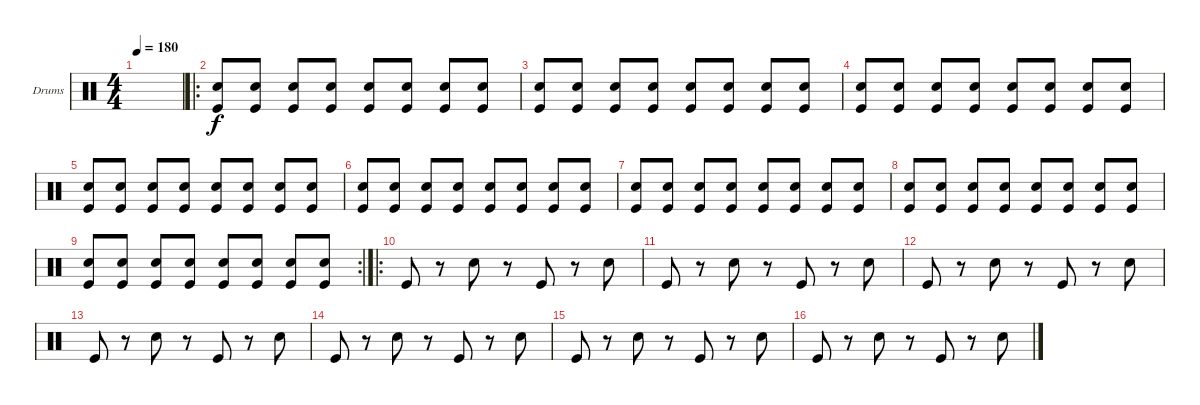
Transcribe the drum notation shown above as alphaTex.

\defaultSystemsLayout 4
\bracketExtendMode groupsimilarinstruments
\firstSystemTrackNameOrientation horizontal
\otherSystemsTrackNameOrientation horizontal
\track ("Drumkit" "Drums") {instrument percussion}
\staff {score}
\articulation defaults
\ts (4 4)
\tempo 180
\clef neutral
\scale
0.301075
\ks c
|
\ro
\scale
0.365591 ("Snare (hit) 2" "Kick (hit)").8 ("Snare (hit) 2" "Kick (hit)").8 ("Snare (hit) 2" "Kick (hit)").8 ("Snare (hit) 2" "Kick (hit)").8 ("Snare (hit) 2" "Kick (hit)").8 ("Snare (hit) 2" "Kick (hit)").8 ("Snare (hit) 2" "Kick (hit)").8 ("Snare (hit) 2" "Kick (hit)").8 |
\scale
0.333333 ("Snare (hit) 2" "Kick (hit)").8 ("Snare (hit) 2" "Kick (hit)").8 ("Snare (hit) 2" "Kick (hit)").8 ("Snare (hit) 2" "Kick (hit)").8 ("Snare (hit) 2" "Kick (hit)").8 ("Snare (hit) 2" "Kick (hit)").8 ("Snare (hit) 2" "Kick (hit)").8 ("Snare (hit) 2" "Kick (hit)").8 |
\scale
0.333333 ("Snare (hit) 2" "Kick (hit)").8 ("Snare (hit) 2" "Kick (hit)").8 ("Snare (hit) 2" "Kick (hit)").8 ("Snare (hit) 2" "Kick (hit)").8 ("Snare (hit) 2" "Kick (hit)").8 ("Snare (hit) 2" "Kick (hit)").8 ("Snare (hit) 2" "Kick (hit)").8 ("Snare (hit) 2" "Kick (hit)").8 |
\scale
0.333333 ("Snare (hit) 2" "Kick (hit)").8 ("Snare (hit) 2" "Kick (hit)").8 ("Snare (hit) 2" "Kick (hit)").8 ("Snare (hit) 2" "Kick (hit)").8 ("Snare (hit) 2" "Kick (hit)").8 ("Snare (hit) 2" "Kick (hit)").8 ("Snare (hit) 2" "Kick (hit)").8 ("Snare (hit) 2" "Kick (hit)").8 |
\scale
0.333333 ("Snare (hit) 2" "Kick (hit)").8 ("Snare (hit) 2" "Kick (hit)").8 ("Snare (hit) 2" "Kick (hit)").8 ("Snare (hit) 2" "Kick (hit)").8 ("Snare (hit) 2" "Kick (hit)").8 ("Snare (hit) 2" "Kick (hit)").8 ("Snare (hit) 2" "Kick (hit)").8 ("Snare (hit) 2" "Kick (hit)").8 |
\scale
0.333333 ("Snare (hit) 2" "Kick (hit)").8 ("Snare (hit) 2" "Kick (hit)").8 ("Snare (hit) 2" "Kick (hit)").8 ("Snare (hit) 2" "Kick (hit)").8 ("Snare (hit) 2" "Kick (hit)").8 ("Snare (hit) 2" "Kick (hit)").8 ("Snare (hit) 2" "Kick (hit)").8 ("Snare (hit) 2" "Kick (hit)").8 |
\scale
0.333333 ("Snare (hit) 2" "Kick (hit)").8 ("Snare (hit) 2" "Kick (hit)").8 ("Snare (hit) 2" "Kick (hit)").8 ("Snare (hit) 2" "Kick (hit)").8 ("Snare (hit) 2" "Kick (hit)").8 ("Snare (hit) 2" "Kick (hit)").8 ("Snare (hit) 2" "Kick (hit)").8 ("Snare (hit) 2" "Kick (hit)").8 |
\rc 2
\scale
0.333333 ("Snare (hit) 2" "Kick (hit)").8 ("Snare (hit) 2" "Kick (hit)").8 ("Snare (hit) 2" "Kick (hit)").8 ("Snare (hit) 2" "Kick (hit)").8 ("Snare (hit) 2" "Kick (hit)").8 ("Snare (hit) 2" "Kick (hit)").8 ("Snare (hit) 2" "Kick (hit)").8 ("Snare (hit) 2" "Kick (hit)").8 |
\ro
\scale
0.365591 "Kick (hit)".8 r.8 "Snare (hit) 2".8 r.8 "Kick (hit)".8 r.8 "Snare (hit) 2".8 |
\scale
0.301075 "Kick (hit)".8 r.8 "Snare (hit) 2".8 r.8 "Kick (hit)".8 r.8 "Snare (hit) 2".8 |
\scale
0.333333 "Kick (hit)".8 r.8 "Snare (hit) 2".8 r.8 "Kick (hit)".8 r.8 "Snare (hit) 2".8 |
\scale
0.333333 "Kick (hit)".8 r.8 "Snare (hit) 2".8 r.8 "Kick (hit)".8 r.8 "Snare (hit) 2".8 |
\scale
0.333333 "Kick (hit)".8 r.8 "Snare (hit) 2".8 r.8 "Kick (hit)".8 r.8 "Snare (hit) 2".8 |
\scale
0.321839 "Kick (hit)".8 r.8 "Snare (hit) 2".8 r.8 "Kick (hit)".8 r.8 "Snare (hit) 2".8 |
\scale
0.321839 "Kick (hit)".8 r.8 "Snare (hit) 2".8 r.8 "Kick (hit)".8 r.8 "Snare (hit) 2".8
